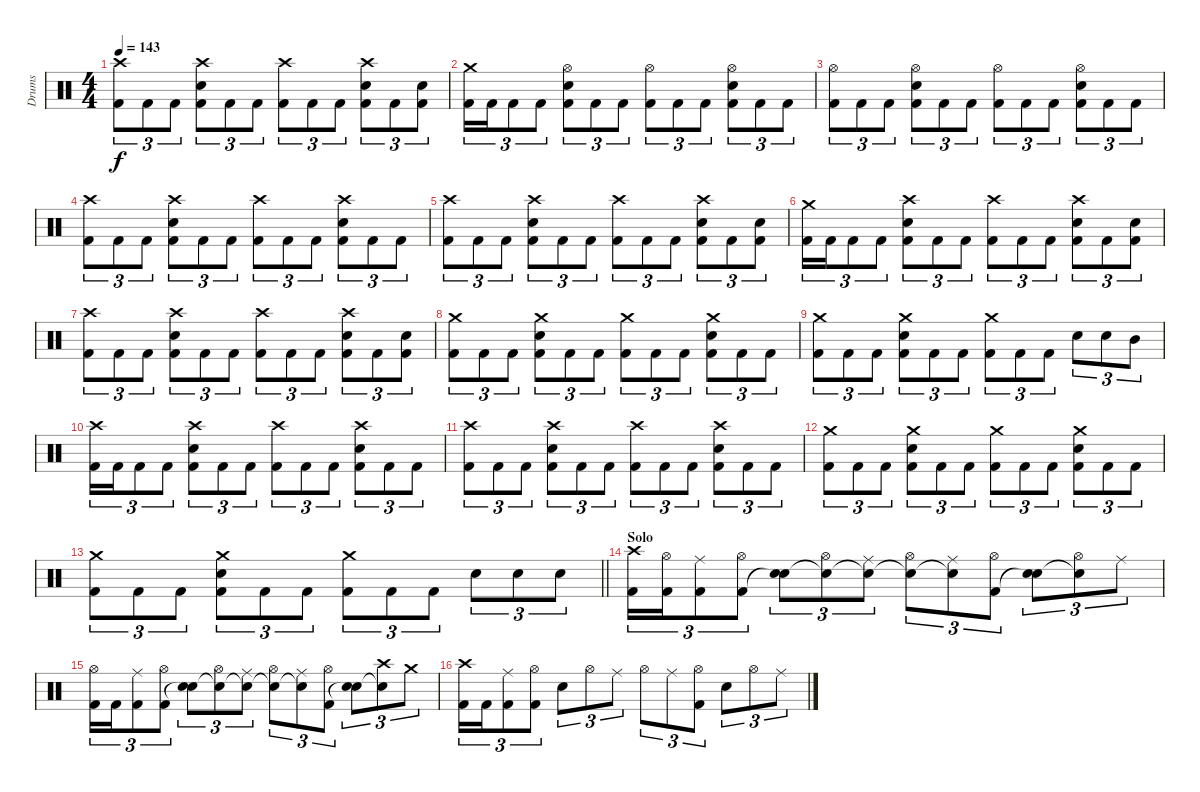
\track ("Drums" "Drums") {instrument percussion}
\staff {score}
\articulation defaults
\ts (4 4)
\tempo 143
\clef neutral
\ks c
("Crash high (hit)" "Kick (hit) 2").8{tu (3 2) dy f} "Kick (hit) 2".8{tu (3 2)} "Kick (hit) 2".8{tu (3 2)} ("Crash high (hit)" "Snare (hit) 2" "Kick (hit) 2").8{tu (3 2)} "Kick (hit) 2".8{tu (3 2)} "Kick (hit) 2".8{tu (3 2)} ("Crash high (hit)" "Kick (hit) 2").8{tu (3 2)} "Kick (hit) 2".8{tu (3 2)} "Kick (hit) 2".8{tu (3 2)} ("Crash high (hit)" "Snare (hit) 2" "Kick (hit) 2").8{tu (3 2)} "Kick (hit) 2".8{tu (3 2)} ("Snare (hit) 2" "Kick (hit) 2").8{tu (3 2)} |
("Crash medium (hit)" "Kick (hit) 2").16{tu (3 2)} "Kick (hit) 2".16{tu (3 2)} "Kick (hit) 2".8{tu (3 2)} "Kick (hit) 2".8{tu (3 2)} ("Hi-Hat (open)" "Snare (hit) 2" "Kick (hit) 2").8{tu (3 2)} "Kick (hit) 2".8{tu (3 2)} "Kick (hit) 2".8{tu (3 2)} ("Hi-Hat (open)" "Kick (hit) 2").8{tu (3 2)} "Kick (hit) 2".8{tu (3 2)} "Kick (hit) 2".8{tu (3 2)} ("Hi-Hat (open)" "Snare (hit) 2" "Kick (hit) 2").8{tu (3 2)} "Kick (hit) 2".8{tu (3 2)} "Kick (hit) 2".8{tu (3 2)} |
("Hi-Hat (open)" "Kick (hit) 2").8{tu (3 2)} "Kick (hit) 2".8{tu (3 2)} "Kick (hit) 2".8{tu (3 2)} ("Hi-Hat (open)" "Snare (hit) 2" "Kick (hit) 2").8{tu (3 2)} "Kick (hit) 2".8{tu (3 2)} "Kick (hit) 2".8{tu (3 2)} ("Hi-Hat (open)" "Kick (hit) 2").8{tu (3 2)} "Kick (hit) 2".8{tu (3 2)} "Kick (hit) 2".8{tu (3 2)} ("Hi-Hat (open)" "Snare (hit) 2" "Kick (hit) 2").8{tu (3 2)} "Kick (hit) 2".8{tu (3 2)} "Kick (hit) 2".8{tu (3 2)} |
("Crash high (hit)" "Kick (hit) 2").8{tu (3 2)} "Kick (hit) 2".8{tu (3 2)} "Kick (hit) 2".8{tu (3 2)} ("Crash high (hit)" "Snare (hit) 2" "Kick (hit) 2").8{tu (3 2)} "Kick (hit) 2".8{tu (3 2)} "Kick (hit) 2".8{tu (3 2)} ("Crash high (hit)" "Kick (hit) 2").8{tu (3 2)} "Kick (hit) 2".8{tu (3 2)} "Kick (hit) 2".8{tu (3 2)} ("Crash high (hit)" "Snare (hit) 2" "Kick (hit) 2").8{tu (3 2)} "Kick (hit) 2".8{tu (3 2)} "Kick (hit) 2".8{tu (3 2)} |
("Crash high (hit)" "Kick (hit) 2").8{tu (3 2)} "Kick (hit) 2".8{tu (3 2)} "Kick (hit) 2".8{tu (3 2)} ("Crash high (hit)" "Snare (hit) 2" "Kick (hit) 2").8{tu (3 2)} "Kick (hit) 2".8{tu (3 2)} "Kick (hit) 2".8{tu (3 2)} ("Crash high (hit)" "Kick (hit) 2").8{tu (3 2)} "Kick (hit) 2".8{tu (3 2)} "Kick (hit) 2".8{tu (3 2)} ("Crash high (hit)" "Snare (hit) 2" "Kick (hit) 2").8{tu (3 2)} "Kick (hit) 2".8{tu (3 2)} ("Snare (hit) 2" "Kick (hit) 2").8{tu (3 2)} |
("Crash medium (hit)" "Kick (hit) 2").16{tu (3 2)} "Kick (hit) 2".16{tu (3 2)} "Kick (hit) 2".8{tu (3 2)} "Kick (hit) 2".8{tu (3 2)} ("Crash high (hit)" "Snare (hit) 2" "Kick (hit) 2").8{tu (3 2)} "Kick (hit) 2".8{tu (3 2)} "Kick (hit) 2".8{tu (3 2)} ("Crash high (hit)" "Kick (hit) 2").8{tu (3 2)} "Kick (hit) 2".8{tu (3 2)} "Kick (hit) 2".8{tu (3 2)} ("Crash high (hit)" "Snare (hit) 2" "Kick (hit) 2").8{tu (3 2)} "Kick (hit) 2".8{tu (3 2)} ("Snare (hit) 2" "Kick (hit) 2").8{tu (3 2)} |
("Crash high (hit)" "Kick (hit) 2").8{tu (3 2)} "Kick (hit) 2".8{tu (3 2)} "Kick (hit) 2".8{tu (3 2)} ("Crash high (hit)" "Snare (hit) 2" "Kick (hit) 2").8{tu (3 2)} "Kick (hit) 2".8{tu (3 2)} "Kick (hit) 2".8{tu (3 2)} ("Crash high (hit)" "Kick (hit) 2").8{tu (3 2)} "Kick (hit) 2".8{tu (3 2)} "Kick (hit) 2".8{tu (3 2)} ("Crash high (hit)" "Snare (hit) 2" "Kick (hit) 2").8{tu (3 2)} "Kick (hit) 2".8{tu (3 2)} ("Snare (hit) 2" "Kick (hit) 2").8{tu (3 2)} |
("Crash medium (hit)" "Kick (hit) 2").8{tu (3 2)} "Kick (hit) 2".8{tu (3 2)} "Kick (hit) 2".8{tu (3 2)} ("Crash medium (hit)" "Snare (hit) 2" "Kick (hit) 2").8{tu (3 2)} "Kick (hit) 2".8{tu (3 2)} "Kick (hit) 2".8{tu (3 2)} ("Crash medium (hit)" "Kick (hit) 2").8{tu (3 2)} "Kick (hit) 2".8{tu (3 2)} "Kick (hit) 2".8{tu (3 2)} ("Crash medium (hit)" "Snare (hit) 2" "Kick (hit) 2").8{tu (3 2)} "Kick (hit) 2".8{tu (3 2)} "Kick (hit) 2".8{tu (3 2)} |
("Crash medium (hit)" "Kick (hit) 2").8{tu (3 2)} "Kick (hit) 2".8{tu (3 2)} "Kick (hit) 2".8{tu (3 2)} ("Crash medium (hit)" "Snare (hit) 2" "Kick (hit) 2").8{tu (3 2)} "Kick (hit) 2".8{tu (3 2)} "Kick (hit) 2".8{tu (3 2)} ("Crash medium (hit)" "Kick (hit) 2").8{tu (3 2)} "Kick (hit) 2".8{tu (3 2)} "Kick (hit) 2".8{tu (3 2)} "Snare (hit) 2".8{tu (3 2)} "Snare (hit) 2".8{tu (3 2)} "Mid Tom (hit)".8{tu (3 2)} |
("Crash high (hit)" "Kick (hit) 2").16{tu (3 2)} "Kick (hit) 2".16{tu (3 2)} "Kick (hit) 2".8{tu (3 2)} "Kick (hit) 2".8{tu (3 2)} ("Crash high (hit)" "Snare (hit) 2" "Kick (hit) 2").8{tu (3 2)} "Kick (hit) 2".8{tu (3 2)} "Kick (hit) 2".8{tu (3 2)} ("Crash high (hit)" "Kick (hit) 2").8{tu (3 2)} "Kick (hit) 2".8{tu (3 2)} "Kick (hit) 2".8{tu (3 2)} ("Crash high (hit)" "Snare (hit) 2" "Kick (hit) 2").8{tu (3 2)} "Kick (hit) 2".8{tu (3 2)} "Kick (hit) 2".8{tu (3 2)} |
("Crash high (hit)" "Kick (hit) 2").8{tu (3 2)} "Kick (hit) 2".8{tu (3 2)} "Kick (hit) 2".8{tu (3 2)} ("Crash high (hit)" "Snare (hit) 2" "Kick (hit) 2").8{tu (3 2)} "Kick (hit) 2".8{tu (3 2)} "Kick (hit) 2".8{tu (3 2)} ("Crash high (hit)" "Kick (hit) 2").8{tu (3 2)} "Kick (hit) 2".8{tu (3 2)} "Kick (hit) 2".8{tu (3 2)} ("Crash high (hit)" "Snare (hit) 2" "Kick (hit) 2").8{tu (3 2)} "Kick (hit) 2".8{tu (3 2)} "Kick (hit) 2".8{tu (3 2)} |
("Crash medium (hit)" "Kick (hit) 2").8{tu (3 2)} "Kick (hit) 2".8{tu (3 2)} "Kick (hit) 2".8{tu (3 2)} ("Crash medium (hit)" "Snare (hit) 2" "Kick (hit) 2").8{tu (3 2)} "Kick (hit) 2".8{tu (3 2)} "Kick (hit) 2".8{tu (3 2)} ("Crash medium (hit)" "Kick (hit) 2").8{tu (3 2)} "Kick (hit) 2".8{tu (3 2)} "Kick (hit) 2".8{tu (3 2)} ("Crash medium (hit)" "Snare (hit) 2" "Kick (hit) 2").8{tu (3 2)} "Kick (hit) 2".8{tu (3 2)} "Kick (hit) 2".8{tu (3 2)} |
\barLineRight lightlight
("Crash medium (hit)" "Kick (hit) 2").8{tu (3 2)} "Kick (hit) 2".8{tu (3 2)} "Kick (hit) 2".8{tu (3 2)} ("Crash medium (hit)" "Snare (hit) 2" "Kick (hit) 2").8{tu (3 2)} "Kick (hit) 2".8{tu (3 2)} "Kick (hit) 2".8{tu (3 2)} ("Crash medium (hit)" "Kick (hit) 2").8{tu (3 2)} "Kick (hit) 2".8{tu (3 2)} "Kick (hit) 2".8{tu (3 2)} "Snare (hit) 2".8{tu (3 2)} "Snare (hit) 2".8{tu (3 2)} "Snare (hit) 2".8{tu (3 2)} |
\section ("" "Solo")
("Crash high (hit)" "Kick (hit) 2").16{tu (3 2)} ("Hi-Hat (open)" "Kick (hit) 2").16{tu (3 2)} ("Ride (middle)" "Kick (hit) 2").8{tu (3 2)} ("Hi-Hat (open)" "Kick (hit) 2").8{tu (3 2)} ("Snare (hit) 2" "Snare (hit)"{t}).8{tu (3 2)} ("Hi-Hat (open)" "Snare (hit)"{t}).8{tu (3 2)} ("Ride (middle)" "Snare (hit)"{t}).8{tu (3 2)} ("Hi-Hat (open)" "Snare (hit)"{t}).8{tu (3 2)} ("Ride (middle)" "Snare (hit)"{t}).8{tu (3 2)} ("Hi-Hat (open)" "Kick (hit) 2").8{tu (3 2)} ("Snare (hit) 2" "Snare (hit)"{t}).8{tu (3 2)} ("Hi-Hat (open)" "Snare (hit)"{t}).8{tu (3 2)} "Ride (middle)".8{tu (3 2)} |
("Hi-Hat (open)" "Kick (hit) 2").16{tu (3 2)} "Kick (hit) 2".16{tu (3 2)} ("Ride (middle)" "Kick (hit) 2").8{tu (3 2)} ("Hi-Hat (open)" "Kick (hit) 2").8{tu (3 2)} ("Snare (hit) 2" "Snare (hit)"{t}).8{tu (3 2)} ("Hi-Hat (open)" "Snare (hit)"{t}).8{tu (3 2)} ("Ride (middle)" "Snare (hit)"{t}).8{tu (3 2)} ("Hi-Hat (open)" "Snare (hit)"{t}).8{tu (3 2)} ("Ride (middle)" "Snare (hit)"{t}).8{tu (3 2)} ("Hi-Hat (open)" "Kick (hit) 2").8{tu (3 2)} ("Snare (hit) 2" "Snare (hit)"{t}).8{tu (3 2)} ("Crash high (hit)" "Snare (hit)"{t}).8{tu (3 2)} "Crash medium (hit)".8{tu (3 2)} |
("Crash high (hit)" "Kick (hit) 2").16{tu (3 2)} "Kick (hit) 2".16{tu (3 2)} ("Ride (middle)" "Kick (hit) 2").8{tu (3 2)} ("Hi-Hat (open)" "Kick (hit) 2").8{tu (3 2)} "Snare (hit) 2".8{tu (3 2)} "Hi-Hat (open)".8{tu (3 2)} "Ride (middle)".8{tu (3 2)} "Hi-Hat (open)".8{tu (3 2)} "Ride (middle)".8{tu (3 2)} ("Hi-Hat (open)" "Kick (hit) 2").8{tu (3 2)} "Snare (hit) 2".8{tu (3 2)} "Hi-Hat (open)".8{tu (3 2)} "Ride (middle)".8{tu (3 2)}
